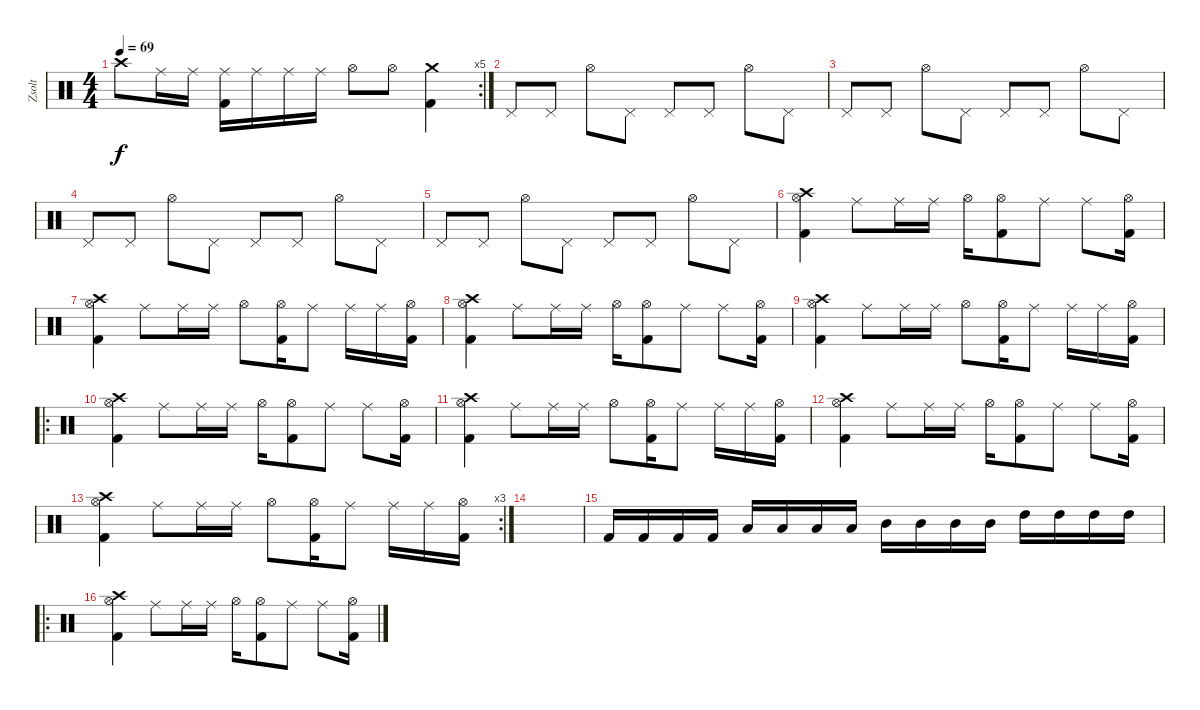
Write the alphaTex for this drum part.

\track ("Zsolt" "Zsolt") {instrument percussion}
\staff {score}
\articulation defaults
\rc 5
\ts (4 4)
\tempo 69
\clef neutral
\ks c "Crash high (hit)".8{dy f} "Ride (middle)".16 "Ride (middle)".16
("Ride (middle)" "Kick (hit) 2").16 "Ride (middle)".16 "Ride (middle)".16 "Ride (middle)".16 "Hi-Hat (open)".8 "Hi-Hat (open)".8 ("Crash medium (hit)" "Kick (hit) 2").4 |
"Pedal Hi-Hat (hit)".8 "Pedal Hi-Hat (hit)".8 "Hi-Hat (open)".8 "Pedal Hi-Hat (hit)".8 "Pedal Hi-Hat (hit)".8 "Pedal Hi-Hat (hit)".8 "Hi-Hat (open)".8 "Pedal Hi-Hat (hit)".8 |
"Pedal Hi-Hat (hit)".8 "Pedal Hi-Hat (hit)".8 "Hi-Hat (open)".8 "Pedal Hi-Hat (hit)".8 "Pedal Hi-Hat (hit)".8 "Pedal Hi-Hat (hit)".8 "Hi-Hat (open)".8 "Pedal Hi-Hat (hit)".8 |
"Pedal Hi-Hat (hit)".8 "Pedal Hi-Hat (hit)".8 "Hi-Hat (open)".8 "Pedal Hi-Hat (hit)".8 "Pedal Hi-Hat (hit)".8 "Pedal Hi-Hat (hit)".8 "Hi-Hat (open)".8 "Pedal Hi-Hat (hit)".8 |
"Pedal Hi-Hat (hit)".8 "Pedal Hi-Hat (hit)".8 "Hi-Hat (open)".8 "Pedal Hi-Hat (hit)".8 "Pedal Hi-Hat (hit)".8 "Pedal Hi-Hat (hit)".8 "Hi-Hat (open)".8 "Pedal Hi-Hat (hit)".8 |
("Crash high (hit)" "Hi-Hat (open)" "Kick (hit) 2").4 "Ride (middle)".8 "Ride (middle)".16 "Ride (middle)".16 "Hi-Hat (open)".16 ("Hi-Hat (open)" "Kick (hit) 2").8 "Ride (middle)".8 "Ride (middle)".8 ("Hi-Hat (open)" "Kick (hit) 2").16 |
("Crash high (hit)" "Hi-Hat (open)" "Kick (hit) 2").4 "Ride (middle)".8 "Ride (middle)".16 "Ride (middle)".16 "Hi-Hat (open)".8 ("Hi-Hat (open)" "Kick (hit) 2").16 "Ride (middle)".8 "Ride (middle)".16 "Ride (middle)".16 ("Hi-Hat (open)" "Kick (hit) 2").16 |
("Crash high (hit)" "Hi-Hat (open)" "Kick (hit) 2").4 "Ride (middle)".8 "Ride (middle)".16 "Ride (middle)".16 "Hi-Hat (open)".16 ("Hi-Hat (open)" "Kick (hit) 2").8 "Ride (middle)".8 "Ride (middle)".8 ("Hi-Hat (open)" "Kick (hit) 2").16 |
("Crash high (hit)" "Hi-Hat (open)" "Kick (hit) 2").4 "Ride (middle)".8 "Ride (middle)".16 "Ride (middle)".16 "Hi-Hat (open)".8 ("Hi-Hat (open)" "Kick (hit) 2").16 "Ride (middle)".8 "Ride (middle)".16 "Ride (middle)".16 ("Hi-Hat (open)" "Kick (hit) 2").16 |
\ro
("Crash high (hit)" "Hi-Hat (open)" "Kick (hit) 2").4 "Ride (middle)".8 "Ride (middle)".16 "Ride (middle)".16 "Hi-Hat (open)".16 ("Hi-Hat (open)" "Kick (hit) 2").8 "Ride (middle)".8 "Ride (middle)".8 ("Hi-Hat (open)" "Kick (hit) 2").16 |
("Crash high (hit)" "Hi-Hat (open)" "Kick (hit) 2").4 "Ride (middle)".8 "Ride (middle)".16 "Ride (middle)".16 "Hi-Hat (open)".8 ("Hi-Hat (open)" "Kick (hit) 2").16 "Ride (middle)".8 "Ride (middle)".16 "Ride (middle)".16 ("Hi-Hat (open)" "Kick (hit) 2").16 |
("Crash high (hit)" "Hi-Hat (open)" "Kick (hit) 2").4 "Ride (middle)".8 "Ride (middle)".16 "Ride (middle)".16 "Hi-Hat (open)".16 ("Hi-Hat (open)" "Kick (hit) 2").8 "Ride (middle)".8 "Ride (middle)".8 ("Hi-Hat (open)" "Kick (hit) 2").16 |
\rc 3
("Crash high (hit)" "Hi-Hat (open)" "Kick (hit) 2").4 "Ride (middle)".8 "Ride (middle)".16 "Ride (middle)".16 "Hi-Hat (open)".8 ("Hi-Hat (open)" "Kick (hit) 2").16 "Ride (middle)".8 "Ride (middle)".16 "Ride (middle)".16 ("Hi-Hat (open)" "Kick (hit) 2").16 |
|
"Kick (hit) 2".16 "Kick (hit) 2".16 "Kick (hit) 2".16 "Kick (hit) 2".16 "Low Tom (hit)".16 "Low Tom (hit)".16 "Low Tom (hit)".16 "Low Tom (hit)".16 "Mid Tom (hit)".16 "Mid Tom (hit)".16 "Mid Tom (hit)".16 "Mid Tom (hit)".16 "High Tom (hit)".16 "High Tom (hit)".16 "High Tom (hit)".16 "High Tom (hit)".16 |
\ro
("Crash high (hit)" "Hi-Hat (open)" "Kick (hit) 2").4 "Ride (middle)".8 "Ride (middle)".16 "Ride (middle)".16 "Hi-Hat (open)".16 ("Hi-Hat (open)" "Kick (hit) 2").8 "Ride (middle)".8 "Ride (middle)".8 ("Hi-Hat (open)" "Kick (hit) 2").16
